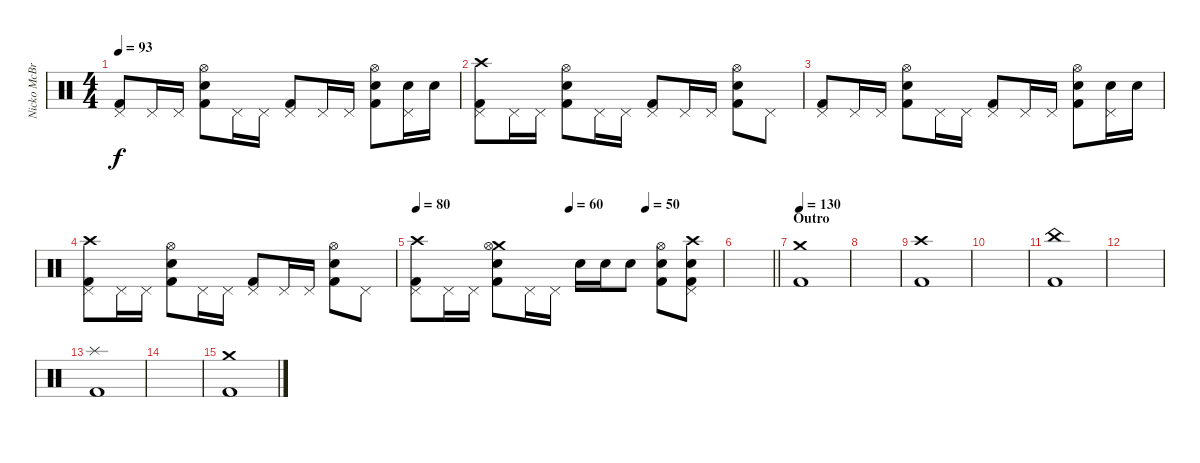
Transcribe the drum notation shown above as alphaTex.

\track ("Nicko McBrain" "Nicko McBr") {instrument percussion}
\staff {score}
\articulation defaults
\ts (4 4)
\tempo 93
\clef neutral
\ks c
("Pedal Hi-Hat (hit)" "Kick (hit) 2").8{dy f} "Pedal Hi-Hat (hit)".16 "Pedal Hi-Hat (hit)".16 ("Electric Snare (hit)" "Hi-Hat (open)" "Kick (hit) 2").8 "Pedal Hi-Hat (hit)".16 "Pedal Hi-Hat (hit)".16 ("Pedal Hi-Hat (hit)" "Kick (hit) 2").8 "Pedal Hi-Hat (hit)".16 "Pedal Hi-Hat (hit)".16 ("Electric Snare (hit)" "Hi-Hat (open)" "Kick (hit) 2").8 ("Pedal Hi-Hat (hit)" "Electric Snare (hit)").16 "Electric Snare (hit)".16 |
("Pedal Hi-Hat (hit)" "Crash high (hit)" "Kick (hit) 2").8 "Pedal Hi-Hat (hit)".16 "Pedal Hi-Hat (hit)".16 ("Electric Snare (hit)" "Hi-Hat (open)" "Kick (hit) 2").8 "Pedal Hi-Hat (hit)".16 "Pedal Hi-Hat (hit)".16 ("Pedal Hi-Hat (hit)" "Kick (hit) 2").8 "Pedal Hi-Hat (hit)".16 "Pedal Hi-Hat (hit)".16 ("Electric Snare (hit)" "Hi-Hat (open)" "Kick (hit) 2").8 "Pedal Hi-Hat (hit)".8 |
("Pedal Hi-Hat (hit)" "Kick (hit) 2").8 "Pedal Hi-Hat (hit)".16 "Pedal Hi-Hat (hit)".16 ("Electric Snare (hit)" "Hi-Hat (open)" "Kick (hit) 2").8 "Pedal Hi-Hat (hit)".16 "Pedal Hi-Hat (hit)".16 ("Pedal Hi-Hat (hit)" "Kick (hit) 2").8 "Pedal Hi-Hat (hit)".16 "Pedal Hi-Hat (hit)".16 ("Electric Snare (hit)" "Hi-Hat (open)" "Kick (hit) 2").8 ("Pedal Hi-Hat (hit)" "Electric Snare (hit)").16 "Electric Snare (hit)".16 |
("Pedal Hi-Hat (hit)" "Crash high (hit)" "Kick (hit) 2").8 "Pedal Hi-Hat (hit)".16 "Pedal Hi-Hat (hit)".16 ("Electric Snare (hit)" "Hi-Hat (open)" "Kick (hit) 2").8 "Pedal Hi-Hat (hit)".16 "Pedal Hi-Hat (hit)".16 ("Pedal Hi-Hat (hit)" "Kick (hit) 2").8 "Pedal Hi-Hat (hit)".16 "Pedal Hi-Hat (hit)".16 ("Electric Snare (hit)" "Hi-Hat (open)" "Kick (hit) 2").8 "Pedal Hi-Hat (hit)".8 |
\tempo 80
\tempo (60 0.5)
\tempo (50 0.75)
("Pedal Hi-Hat (hit)" "Crash high (hit)" "Kick (hit) 2").8 "Pedal Hi-Hat (hit)".16 "Pedal Hi-Hat (hit)".16 ("Crash medium (hit)" "Electric Snare (hit)" "Hi-Hat (open)" "Kick (hit) 2").8 "Pedal Hi-Hat (hit)".16 "Pedal Hi-Hat (hit)".16 "Electric Snare (hit)".16 "Electric Snare (hit)".16 "Electric Snare (hit)".8 ("Electric Snare (hit)" "Hi-Hat (open)" "Kick (hit) 2").8 ("Crash high (hit)" "Pedal Hi-Hat (hit)" "Electric Snare (hit)" "Kick (hit) 2").8 |
\barLineRight lightlight
|
\section ("" "Outro")
\tempo 130
("Crash medium (hit)" "Kick (hit) 2").1 |
|
("Crash high (hit)" "Kick (hit) 2").1 |
|
("China (hit)" "Kick (hit) 2").1 |
|
("Splash (hit)" "Kick (hit) 2").1 |
|
("Crash medium (hit)" "Kick (hit) 2").1
